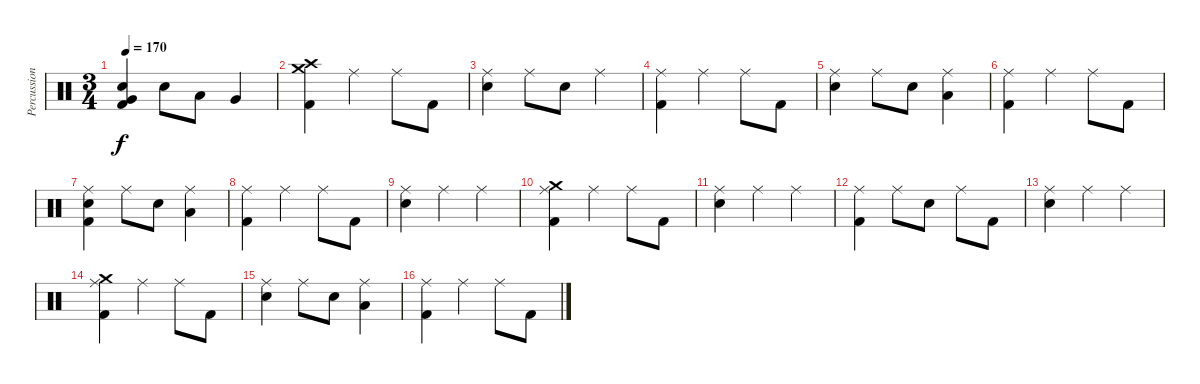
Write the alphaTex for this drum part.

\track ("Percussion" "Percussion") {instrument percussion}
\staff {score}
\articulation defaults
\ts (3 4)
\tempo 170
\clef neutral
\ks c
("Electric Snare (hit)" "Very Low Tom (hit)" "Kick (hit) 2").4{bd 120 dy f} "Electric Snare (hit)".8 "Low Tom (hit)".8 "Very Low Tom (hit)".4 |
("Crash medium (hit)" "Crash high (hit)" "Kick (hit) 2").4 "Ride (middle)".4 "Ride (middle)".8 "Kick (hit) 2".8 |
("Ride (middle)" "Electric Snare (hit)").4 "Ride (middle)".8 "Electric Snare (hit)".8 "Ride (middle)".4 |
("Ride (middle)" "Kick (hit) 2").4 "Ride (middle)".4 "Ride (middle)".8 "Kick (hit) 2".8 |
("Ride (middle)" "Electric Snare (hit)").4 "Ride (middle)".8 "Electric Snare (hit)".8 ("Ride (middle)" "Low Tom (hit)").4 |
("Ride (middle)" "Kick (hit) 2").4 "Ride (middle)".4 "Ride (middle)".8 "Kick (hit) 2".8 |
("Ride (middle)" "Electric Snare (hit)" "Kick (hit) 2").4 "Ride (middle)".8 "Electric Snare (hit)".8 ("Ride (middle)" "Low Tom (hit)").4 |
("Ride (middle)" "Kick (hit) 2").4 "Ride (middle)".4 "Ride (middle)".8 "Kick (hit) 2".8 |
("Ride (middle)" "Electric Snare (hit)").4 "Ride (middle)".4 "Ride (middle)".4 |
("Ride (middle)" "Crash medium (hit)" "Kick (hit) 2").4 "Ride (middle)".4 "Ride (middle)".8 "Kick (hit) 2".8 |
("Ride (middle)" "Electric Snare (hit)").4 "Ride (middle)".4 "Ride (middle)".4 |
("Ride (middle)" "Kick (hit) 2").4 "Ride (middle)".8 "Electric Snare (hit)".8 "Ride (middle)".8 "Kick (hit) 2".8 |
("Ride (middle)" "Electric Snare (hit)").4 "Ride (middle)".4 "Ride (middle)".4 |
("Ride (middle)" "Crash medium (hit)" "Kick (hit) 2").4 "Ride (middle)".4 "Ride (middle)".8 "Kick (hit) 2".8 |
("Ride (middle)" "Electric Snare (hit)").4 "Ride (middle)".8 "Electric Snare (hit)".8 ("Ride (middle)" "Low Tom (hit)").4 |
("Ride (middle)" "Kick (hit) 2").4 "Ride (middle)".4 "Ride (middle)".8 "Kick (hit) 2".8
